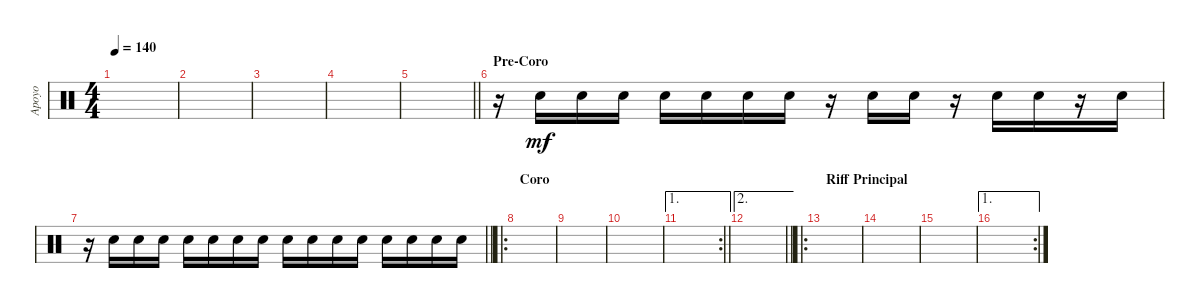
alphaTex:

\track ("Apoyo" "Apoyo") {instrument percussion}
\staff {score}
\articulation defaults
\ts (4 4)
\tempo 140
\clef neutral
\ks c
|
|
|
|
\barLineRight lightlight
|
\section ("" "Pre-Coro")
r.16 "Electric Snare (hit)".16{dy mf} "Electric Snare (hit)".16 "Electric Snare (hit)".16 "Electric Snare (hit)".16 "Electric Snare (hit)".16 "Electric Snare (hit)".16 "Electric Snare (hit)".16 r.16 "Electric Snare (hit)".16 "Electric Snare (hit)".16 r.16 "Electric Snare (hit)".16 "Electric Snare (hit)".16 r.16 "Electric Snare (hit)".16 |
\barLineRight lightlight
r.16 "Electric Snare (hit)".16 "Electric Snare (hit)".16 "Electric Snare (hit)".16 "Electric Snare (hit)".16 "Electric Snare (hit)".16 "Electric Snare (hit)".16 "Electric Snare (hit)".16 "Electric Snare (hit)".16 "Electric Snare (hit)".16 "Electric Snare (hit)".16 "Electric Snare (hit)".16 "Electric Snare (hit)".16 "Electric Snare (hit)".16 "Electric Snare (hit)".16 "Electric Snare (hit)".16 |
\ro
\section ("" "Coro")
|
|
|
\ae 1
\rc 2
\barLineRight lightlight
|
\ae 2
\barLineRight lightlight
|
\ro
\section ("" "Riff Principal")
|
|
|
\ae 1
\rc 2
